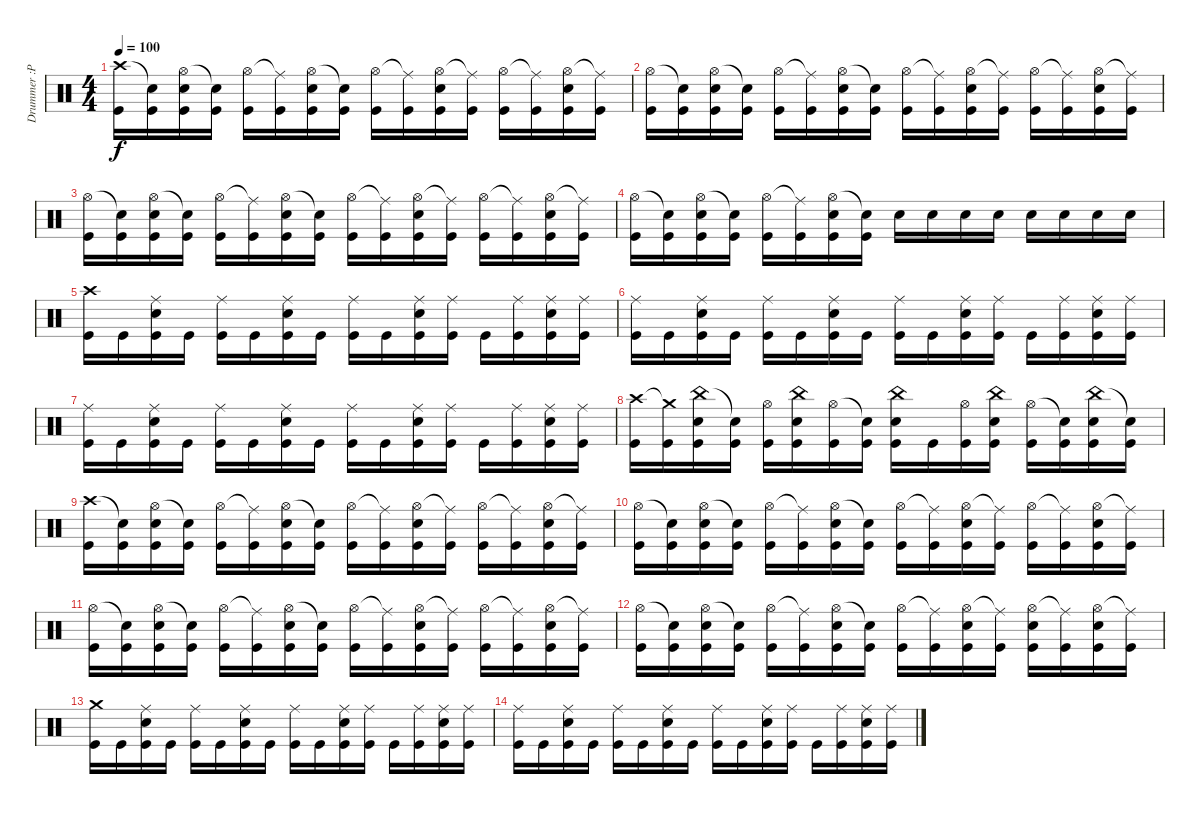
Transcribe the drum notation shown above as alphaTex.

\track ("Drummer :P" "Drummer :P") {instrument percussion}
\staff {score}
\articulation defaults
\ts (4 4)
\tempo 100
\clef neutral
\ks c
("Crash high (hit)" "Kick (hit)").16{dy f} ("Snare (hit)"{t} "Kick (hit)").16 ("Hi-Hat (open)" "Electric Snare (hit)" "Kick (hit)").16 ("Snare (hit)"{t} "Kick (hit)").16 ("Hi-Hat (open)" "Kick (hit)").16 ("Ride (middle)"{t} "Kick (hit)").16 ("Hi-Hat (open)" "Electric Snare (hit)" "Kick (hit)").16 ("Snare (hit)"{t} "Kick (hit)").16 ("Hi-Hat (open)" "Kick (hit)").16 ("Ride (middle)"{t} "Kick (hit)").16 ("Hi-Hat (open)" "Electric Snare (hit)" "Kick (hit)").16 ("Ride (middle)"{t} "Kick (hit)").16 ("Hi-Hat (open)" "Kick (hit)").16 ("Ride (middle)"{t} "Kick (hit)").16 ("Hi-Hat (open)" "Electric Snare (hit)" "Kick (hit)").16 ("Ride (middle)"{t} "Kick (hit)").16 |
("Hi-Hat (open)" "Kick (hit)").16 ("Snare (hit)"{t} "Kick (hit)").16 ("Hi-Hat (open)" "Electric Snare (hit)" "Kick (hit)").16 ("Snare (hit)"{t} "Kick (hit)").16 ("Hi-Hat (open)" "Kick (hit)").16 ("Ride (middle)"{t} "Kick (hit)").16 ("Hi-Hat (open)" "Electric Snare (hit)" "Kick (hit)").16 ("Snare (hit)"{t} "Kick (hit)").16 ("Hi-Hat (open)" "Kick (hit)").16 ("Ride (middle)"{t} "Kick (hit)").16 ("Hi-Hat (open)" "Electric Snare (hit)" "Kick (hit)").16 ("Ride (middle)"{t} "Kick (hit)").16 ("Hi-Hat (open)" "Kick (hit)").16 ("Ride (middle)"{t} "Kick (hit)").16 ("Hi-Hat (open)" "Electric Snare (hit)" "Kick (hit)").16 ("Ride (middle)"{t} "Kick (hit)").16 |
("Hi-Hat (open)" "Kick (hit)").16 ("Snare (hit)"{t} "Kick (hit)").16 ("Hi-Hat (open)" "Electric Snare (hit)" "Kick (hit)").16 ("Snare (hit)"{t} "Kick (hit)").16 ("Hi-Hat (open)" "Kick (hit)").16 ("Ride (middle)"{t} "Kick (hit)").16 ("Hi-Hat (open)" "Electric Snare (hit)" "Kick (hit)").16 ("Snare (hit)"{t} "Kick (hit)").16 ("Hi-Hat (open)" "Kick (hit)").16 ("Ride (middle)"{t} "Kick (hit)").16 ("Hi-Hat (open)" "Electric Snare (hit)" "Kick (hit)").16 ("Ride (middle)"{t} "Kick (hit)").16 ("Hi-Hat (open)" "Kick (hit)").16 ("Ride (middle)"{t} "Kick (hit)").16 ("Hi-Hat (open)" "Electric Snare (hit)" "Kick (hit)").16 ("Ride (middle)"{t} "Kick (hit)").16 |
("Hi-Hat (open)" "Kick (hit)").16 ("Snare (hit)"{t} "Kick (hit)").16 ("Hi-Hat (open)" "Electric Snare (hit)" "Kick (hit)").16 ("Snare (hit)"{t} "Kick (hit)").16 ("Hi-Hat (open)" "Kick (hit)").16 ("Ride (middle)"{t} "Kick (hit)").16 ("Hi-Hat (open)" "Electric Snare (hit)" "Kick (hit)").16 ("Snare (hit)"{t} "Kick (hit)").16 "Electric Snare (hit)".16 "Electric Snare (hit)".16 "Electric Snare (hit)".16 "Electric Snare (hit)".16 "Electric Snare (hit)".16 "Electric Snare (hit)".16 "Electric Snare (hit)".16 "Electric Snare (hit)".16 |
("Crash high (hit)" "Kick (hit)").16 "Kick (hit)".16 ("Ride (middle)" "Electric Snare (hit)" "Kick (hit)").16 "Kick (hit)".16 ("Ride (middle)" "Kick (hit)").16 "Kick (hit)".16 ("Ride (middle)" "Electric Snare (hit)" "Kick (hit)").16 "Kick (hit)".16 ("Ride (middle)" "Kick (hit)").16 "Kick (hit)".16 ("Ride (middle)" "Electric Snare (hit)" "Kick (hit)").16 ("Ride (middle)" "Kick (hit)").16 "Kick (hit)".16 ("Ride (middle)" "Kick (hit)").16 ("Ride (middle)" "Electric Snare (hit)" "Kick (hit)").16 ("Ride (middle)" "Kick (hit)").16 |
("Ride (middle)" "Kick (hit)").16 "Kick (hit)".16 ("Ride (middle)" "Electric Snare (hit)" "Kick (hit)").16 "Kick (hit)".16 ("Ride (middle)" "Kick (hit)").16 "Kick (hit)".16 ("Ride (middle)" "Electric Snare (hit)" "Kick (hit)").16 "Kick (hit)".16 ("Ride (middle)" "Kick (hit)").16 "Kick (hit)".16 ("Ride (middle)" "Electric Snare (hit)" "Kick (hit)").16 ("Ride (middle)" "Kick (hit)").16 "Kick (hit)".16 ("Ride (middle)" "Kick (hit)").16 ("Ride (middle)" "Electric Snare (hit)" "Kick (hit)").16 ("Ride (middle)" "Kick (hit)").16 |
("Ride (middle)" "Kick (hit)").16 "Kick (hit)".16 ("Ride (middle)" "Electric Snare (hit)" "Kick (hit)").16 "Kick (hit)".16 ("Ride (middle)" "Kick (hit)").16 "Kick (hit)".16 ("Ride (middle)" "Electric Snare (hit)" "Kick (hit)").16 "Kick (hit)".16 ("Ride (middle)" "Kick (hit)").16 "Kick (hit)".16 ("Ride (middle)" "Electric Snare (hit)" "Kick (hit)").16 ("Ride (middle)" "Kick (hit)").16 "Kick (hit)".16 ("Ride (middle)" "Kick (hit)").16 ("Ride (middle)" "Electric Snare (hit)" "Kick (hit)").16 ("Ride (middle)" "Kick (hit)").16 |
("Crash high (hit)" "Kick (hit)").16{volume 12} ("Crash medium (hit)"{t} "Kick (hit)").16 ("China (hit)" "Electric Snare (hit)" "Kick (hit)").16 ("Snare (hit)"{t} "Kick (hit)").16 ("Hi-Hat (open)" "Kick (hit)").16{volume 12} ("China (hit)" "Electric Snare (hit)" "Kick (hit)").16 ("Hi-Hat (open)" "Kick (hit)").16 ("Snare (hit)"{t} "Kick (hit)").16 ("China (hit)" "Electric Snare (hit)" "Kick (hit)").16{volume 11} "Kick (hit)".16 ("Hi-Hat (open)" "Kick (hit)").16 ("China (hit)" "Electric Snare (hit)" "Kick (hit)").16 ("Hi-Hat (open)" "Kick (hit)").16{volume 11} ("Snare (hit)"{t} "Kick (hit)").16 ("China (hit)" "Electric Snare (hit)" "Kick (hit)").16 ("Snare (hit)"{t} "Kick (hit)").16 |
("Crash high (hit)" "Kick (hit)").16{volume 10} ("Snare (hit)"{t} "Kick (hit)").16 ("Hi-Hat (open)" "Electric Snare (hit)" "Kick (hit)").16 ("Snare (hit)"{t} "Kick (hit)").16 ("Hi-Hat (open)" "Kick (hit)").16{volume 10} ("Ride (middle)"{t} "Kick (hit)").16 ("Hi-Hat (open)" "Electric Snare (hit)" "Kick (hit)").16 ("Snare (hit)"{t} "Kick (hit)").16 ("Hi-Hat (open)" "Kick (hit)").16{volume 10} ("Ride (middle)"{t} "Kick (hit)").16 ("Hi-Hat (open)" "Electric Snare (hit)" "Kick (hit)").16 ("Ride (middle)"{t} "Kick (hit)").16 ("Hi-Hat (open)" "Kick (hit)").16{volume 9} ("Ride (middle)"{t} "Kick (hit)").16 ("Hi-Hat (open)" "Electric Snare (hit)" "Kick (hit)").16 ("Ride (middle)"{t} "Kick (hit)").16 |
("Hi-Hat (open)" "Kick (hit)").16{volume 9} ("Snare (hit)"{t} "Kick (hit)").16 ("Hi-Hat (open)" "Electric Snare (hit)" "Kick (hit)").16 ("Snare (hit)"{t} "Kick (hit)").16 ("Hi-Hat (open)" "Kick (hit)").16{volume 9} ("Ride (middle)"{t} "Kick (hit)").16 ("Hi-Hat (open)" "Electric Snare (hit)" "Kick (hit)").16 ("Snare (hit)"{t} "Kick (hit)").16 ("Hi-Hat (open)" "Kick (hit)").16{volume 8} ("Ride (middle)"{t} "Kick (hit)").16 ("Hi-Hat (open)" "Electric Snare (hit)" "Kick (hit)").16 ("Ride (middle)"{t} "Kick (hit)").16 ("Hi-Hat (open)" "Kick (hit)").16{volume 8} ("Ride (middle)"{t} "Kick (hit)").16 ("Hi-Hat (open)" "Electric Snare (hit)" "Kick (hit)").16 ("Ride (middle)"{t} "Kick (hit)").16 |
("Hi-Hat (open)" "Kick (hit)").16{volume 7} ("Snare (hit)"{t} "Kick (hit)").16 ("Hi-Hat (open)" "Electric Snare (hit)" "Kick (hit)").16 ("Snare (hit)"{t} "Kick (hit)").16 ("Hi-Hat (open)" "Kick (hit)").16{volume 7} ("Ride (middle)"{t} "Kick (hit)").16 ("Hi-Hat (open)" "Electric Snare (hit)" "Kick (hit)").16 ("Snare (hit)"{t} "Kick (hit)").16 ("Hi-Hat (open)" "Kick (hit)").16{volume 7} ("Ride (middle)"{t} "Kick (hit)").16 ("Hi-Hat (open)" "Electric Snare (hit)" "Kick (hit)").16 ("Ride (middle)"{t} "Kick (hit)").16 ("Hi-Hat (open)" "Kick (hit)").16{volume 7} ("Ride (middle)"{t} "Kick (hit)").16 ("Hi-Hat (open)" "Electric Snare (hit)" "Kick (hit)").16 ("Ride (middle)"{t} "Kick (hit)").16 |
("Hi-Hat (open)" "Kick (hit)").16{volume 6} ("Snare (hit)"{t} "Kick (hit)").16 ("Hi-Hat (open)" "Electric Snare (hit)" "Kick (hit)").16 ("Snare (hit)"{t} "Kick (hit)").16 ("Hi-Hat (open)" "Kick (hit)").16{volume 6} ("Ride (middle)"{t} "Kick (hit)").16 ("Hi-Hat (open)" "Electric Snare (hit)" "Kick (hit)").16 ("Snare (hit)"{t} "Kick (hit)").16 ("Hi-Hat (open)" "Kick (hit)").16{volume 5} ("Ride (middle)"{t} "Kick (hit)").16 ("Hi-Hat (open)" "Electric Snare (hit)" "Kick (hit)").16 ("Ride (middle)"{t} "Kick (hit)").16 ("Hi-Hat (open)" "Electric Snare (hit)" "Kick (hit)").16{volume 5} ("Ride (middle)"{t} "Kick (hit)").16 ("Hi-Hat (open)" "Electric Snare (hit)" "Kick (hit)").16 ("Ride (middle)"{t} "Kick (hit)").16 |
("Crash medium (hit)" "Kick (hit)").16{volume 5} "Kick (hit)".16 ("Ride (middle)" "Electric Snare (hit)" "Kick (hit)").16 "Kick (hit)".16 ("Ride (middle)" "Kick (hit)").16{volume 4} "Kick (hit)".16 ("Ride (middle)" "Electric Snare (hit)" "Kick (hit)").16 "Kick (hit)".16 ("Ride (middle)" "Kick (hit)").16{volume 4} "Kick (hit)".16 ("Ride (middle)" "Electric Snare (hit)" "Kick (hit)").16 ("Ride (middle)" "Kick (hit)").16 "Kick (hit)".16{volume 3} ("Ride (middle)" "Kick (hit)").16 ("Ride (middle)" "Electric Snare (hit)" "Kick (hit)").16 ("Ride (middle)" "Kick (hit)").16 |
("Ride (middle)" "Kick (hit)").16{volume 3} "Kick (hit)".16 ("Ride (middle)" "Electric Snare (hit)" "Kick (hit)").16 "Kick (hit)".16 ("Ride (middle)" "Kick (hit)").16{volume 3} "Kick (hit)".16 ("Ride (middle)" "Electric Snare (hit)" "Kick (hit)").16 "Kick (hit)".16 ("Ride (middle)" "Kick (hit)").16{volume 2} "Kick (hit)".16 ("Ride (middle)" "Electric Snare (hit)" "Kick (hit)").16 ("Ride (middle)" "Kick (hit)").16 "Kick (hit)".16{volume 1} ("Ride (middle)" "Kick (hit)").16 ("Ride (middle)" "Electric Snare (hit)" "Kick (hit)").16{volume 0} ("Ride (middle)" "Kick (hit)").16
